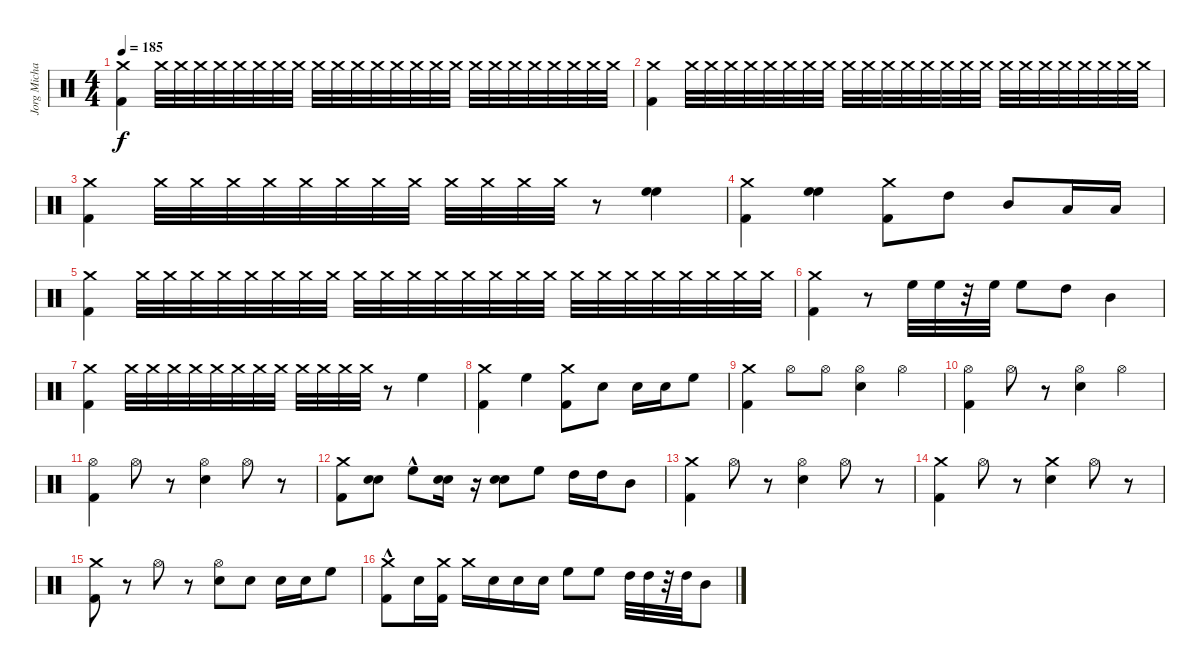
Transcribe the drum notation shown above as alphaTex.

\track ("Jorg Michael" "Jorg Micha") {instrument percussion}
\staff {score}
\articulation defaults
\ts (4 4)
\tempo 185
\clef neutral
\ks c
("Kick (hit) 2" "Crash medium (hit)").4{dy f} "Crash medium (hit)".32{volume 1} "Crash medium (hit)".32{volume 1} "Crash medium (hit)".32{volume 2} "Crash medium (hit)".32{volume 3} "Crash medium (hit)".32{volume 4} "Crash medium (hit)".32{volume 4} "Crash medium (hit)".32{volume 5} "Crash medium (hit)".32{volume 5} "Crash medium (hit)".32{volume 6} "Crash medium (hit)".32{volume 6} "Crash medium (hit)".32{volume 7} "Crash medium (hit)".32{volume 8} "Crash medium (hit)".32{volume 8} "Crash medium (hit)".32{volume 9} "Crash medium (hit)".32{volume 10} "Crash medium (hit)".32{volume 10} "Crash medium (hit)".32{volume 11} "Crash medium (hit)".32{volume 11} "Crash medium (hit)".32{volume 12} "Crash medium (hit)".32{volume 12} "Crash medium (hit)".32{volume 13} "Crash medium (hit)".32{volume 14} "Crash medium (hit)".32{volume 15} "Crash medium (hit)".32{volume 15} |
("Kick (hit) 2" "Crash medium (hit)").4{volume 15} "Crash medium (hit)".32{volume 1} "Crash medium (hit)".32{volume 1} "Crash medium (hit)".32{volume 2} "Crash medium (hit)".32{volume 3} "Crash medium (hit)".32{volume 4} "Crash medium (hit)".32{volume 4} "Crash medium (hit)".32{volume 5} "Crash medium (hit)".32{volume 5} "Crash medium (hit)".32{volume 6} "Crash medium (hit)".32{volume 6} "Crash medium (hit)".32{volume 7} "Crash medium (hit)".32{volume 8} "Crash medium (hit)".32{volume 8} "Crash medium (hit)".32{volume 9} "Crash medium (hit)".32{volume 10} "Crash medium (hit)".32{volume 10} "Crash medium (hit)".32{volume 11} "Crash medium (hit)".32{volume 11} "Crash medium (hit)".32{volume 12} "Crash medium (hit)".32{volume 12} "Crash medium (hit)".32{volume 13} "Crash medium (hit)".32{volume 14} "Crash medium (hit)".32{volume 15} "Crash medium (hit)".32{volume 15} |
("Kick (hit) 2" "Crash medium (hit)").4{volume 15} "Crash medium (hit)".32{volume 1} "Crash medium (hit)".32{volume 1} "Crash medium (hit)".32{volume 3} "Crash medium (hit)".32{volume 4} "Crash medium (hit)".32{volume 5} "Crash medium (hit)".32{volume 6} "Crash medium (hit)".32{volume 7} "Crash medium (hit)".32{volume 8} "Crash medium (hit)".32{volume 9} "Crash medium (hit)".32{volume 10} "Crash medium (hit)".32{volume 11} "Crash medium (hit)".32{volume 12} r.8 ("High Floor Tom (hit)" "High Floor Tom (hit)").4{volume 16} |
("Kick (hit) 2" "Crash medium (hit)").4 ("High Floor Tom (hit)" "High Floor Tom (hit)").4 ("Crash medium (hit)" "Kick (hit) 2").8 "High Tom (hit)".8 "Mid Tom (hit)".8 "Low Tom (hit)".16 "Low Tom (hit)".16 |
("Kick (hit) 2" "Crash medium (hit)").4 "Crash medium (hit)".32{volume 1} "Crash medium (hit)".32{volume 1} "Crash medium (hit)".32{volume 2} "Crash medium (hit)".32{volume 3} "Crash medium (hit)".32{volume 4} "Crash medium (hit)".32{volume 4} "Crash medium (hit)".32{volume 5} "Crash medium (hit)".32{volume 5} "Crash medium (hit)".32{volume 6} "Crash medium (hit)".32{volume 6} "Crash medium (hit)".32{volume 7} "Crash medium (hit)".32{volume 8} "Crash medium (hit)".32{volume 8} "Crash medium (hit)".32{volume 9} "Crash medium (hit)".32{volume 10} "Crash medium (hit)".32{volume 10} "Crash medium (hit)".32{volume 11} "Crash medium (hit)".32{volume 11} "Crash medium (hit)".32{volume 12} "Crash medium (hit)".32{volume 12} "Crash medium (hit)".32{volume 13} "Crash medium (hit)".32{volume 14} "Crash medium (hit)".32{volume 15} "Crash medium (hit)".32{volume 15} |
("Kick (hit) 2" "Crash medium (hit)").4{volume 15} r.8 "High Floor Tom (hit)".32 "High Floor Tom (hit)".32 r.32 "High Floor Tom (hit)".32 "High Floor Tom (hit)".8 "High Tom (hit)".8 "Mid Tom (hit)".4 |
("Kick (hit) 2" "Crash medium (hit)").4 "Crash medium (hit)".32{volume 1} "Crash medium (hit)".32{volume 1} "Crash medium (hit)".32{volume 3} "Crash medium (hit)".32{volume 4} "Crash medium (hit)".32{volume 5} "Crash medium (hit)".32{volume 6} "Crash medium (hit)".32{volume 7} "Crash medium (hit)".32{volume 8} "Crash medium (hit)".32{volume 9} "Crash medium (hit)".32{volume 10} "Crash medium (hit)".32{volume 11} "Crash medium (hit)".32{volume 12} r.8 "High Floor Tom (hit)".4{volume 16} |
("Crash medium (hit)" "Kick (hit) 2").4 "High Floor Tom (hit)".4 ("Crash medium (hit)" "Kick (hit) 2").8 "Snare (hit) 2".8 "Snare (hit) 2".16 "Snare (hit) 2".16 "High Floor Tom (hit)".8 |
("Crash medium (hit)" "Kick (hit) 2").4 "Hi-Hat (open)".8 "Hi-Hat (open)".8 ("Hi-Hat (open)" "Snare (hit) 2").4 "Hi-Hat (open)".4 |
("Hi-Hat (open)" "Kick (hit) 2").4 "Hi-Hat (open)".8 r.8 ("Hi-Hat (open)" "Snare (hit) 2").4 "Hi-Hat (open)".4 |
("Kick (hit) 2" "Hi-Hat (open)").4 "Hi-Hat (open)".8 r.8 ("Hi-Hat (open)" "Snare (hit) 2").4 "Hi-Hat (open)".8 r.8 |
("Kick (hit) 2" "Crash medium (hit)").8 ("Snare (hit) 2" "Snare (hit) 2").8 "High Floor Tom (hit)"{hac}.8 ("Snare (hit) 2" "Snare (hit) 2").16 r.16 ("Snare (hit) 2" "Snare (hit) 2").8 "High Floor Tom (hit)".8 "High Tom (hit)".16 "High Tom (hit)".16 "Mid Tom (hit)".8 |
("Crash medium (hit)" "Kick (hit) 2").4 "Hi-Hat (open)".8 r.8 ("Hi-Hat (open)" "Snare (hit) 2").4 "Hi-Hat (open)".8 r.8 |
("Crash medium (hit)" "Kick (hit) 2").4 "Hi-Hat (open)".8 r.8 ("Crash medium (hit)" "Snare (hit) 2").4 "Hi-Hat (open)".8 r.8 |
("Kick (hit) 2" "Crash medium (hit)").8 r.8 "Hi-Hat (open)".8 r.8 ("Snare (hit) 2" "Hi-Hat (open)").8 "Snare (hit) 2".8 "Snare (hit) 2".16 "Snare (hit) 2".16 "High Floor Tom (hit)".8 |
("Crash medium (hit)" "Kick (hit) 2"{hac}).8 "Snare (hit) 2".16 ("Crash medium (hit)" "Kick (hit) 2").16 "Crash medium (hit)".16 "Snare (hit) 2".16 "Snare (hit) 2".16 "Snare (hit) 2".16 "High Floor Tom (hit)".8 "High Floor Tom (hit)".8 "High Tom (hit)".32 "High Tom (hit)".32 r.32 "High Tom (hit)".32 "Mid Tom (hit)".8
